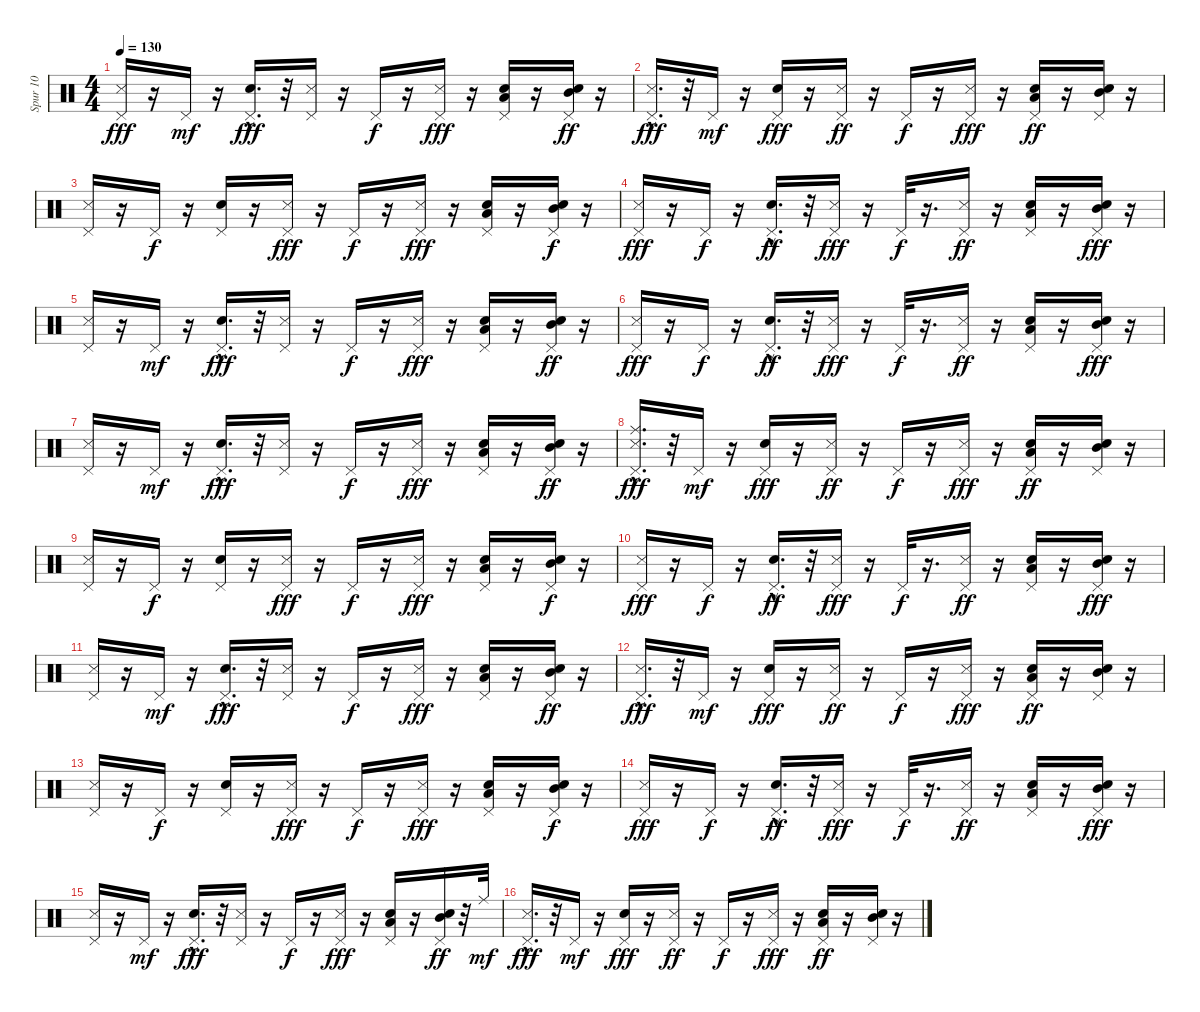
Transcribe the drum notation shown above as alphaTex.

\track ("Spur 10" "Spur 10") {instrument percussion}
\staff {score}
\articulation defaults
\ts (4 4)
\tempo 130
\clef neutral
\ks c
("Pedal Hi-Hat (hit)" "Metronome (hit)").16{dy fff} r.16 "Pedal Hi-Hat (hit)".16{dy mf} r.16 ("Pedal Hi-Hat (hit)" "Snare (hit) 2"{hac}).16{d dy fff} r.32 ("Pedal Hi-Hat (hit)" "Metronome (hit)").16 r.16 "Pedal Hi-Hat (hit)".16{dy f} r.16 ("Pedal Hi-Hat (hit)" "Metronome (hit)").16{dy fff} r.16 ("Low Tom (hit)" "Pedal Hi-Hat (hit)" "Snare (hit) 2").16 r.16 ("Mid Tom (hit)" "Pedal Hi-Hat (hit)" "Snare (hit) 2").16{dy ff} r.16 |
("Pedal Hi-Hat (hit)" "Metronome (hit)"{hac}).16{d dy fff} r.32 "Pedal Hi-Hat (hit)".16{dy mf} r.16 ("Pedal Hi-Hat (hit)" "Snare (hit) 2").16{dy fff} r.16 ("Metronome (hit)" "Pedal Hi-Hat (hit)").16{dy ff} r.16 "Pedal Hi-Hat (hit)".16{dy f} r.16 ("Metronome (hit)" "Pedal Hi-Hat (hit)").16{dy fff} r.16 ("Snare (hit) 2" "Low Tom (hit)" "Pedal Hi-Hat (hit)").16{dy ff} r.16 ("Snare (hit) 2" "Mid Tom (hit)" "Pedal Hi-Hat (hit)").16 r.16 |
("Metronome (hit)" "Pedal Hi-Hat (hit)").16 r.16 "Pedal Hi-Hat (hit)".16{dy f} r.16 ("Snare (hit) 2" "Pedal Hi-Hat (hit)").16 r.16 ("Metronome (hit)" "Pedal Hi-Hat (hit)").16{dy fff} r.16 "Pedal Hi-Hat (hit)".16{dy f} r.16 ("Metronome (hit)" "Pedal Hi-Hat (hit)").16{dy fff} r.16 ("Snare (hit) 2" "Low Tom (hit)" "Pedal Hi-Hat (hit)").16 r.16 ("Snare (hit) 2" "Mid Tom (hit)" "Pedal Hi-Hat (hit)").16{dy f} r.16 |
("Pedal Hi-Hat (hit)" "Metronome (hit)").16{dy fff} r.16 "Pedal Hi-Hat (hit)".16{dy f} r.16 ("Snare (hit) 2"{hac} "Pedal Hi-Hat (hit)").16{d dy ff} r.32 ("Metronome (hit)" "Pedal Hi-Hat (hit)").16{dy fff} r.16 "Pedal Hi-Hat (hit)".32{dy f} r.16{d} ("Metronome (hit)" "Pedal Hi-Hat (hit)").16{dy ff} r.16 ("Low Tom (hit)" "Snare (hit) 2" "Pedal Hi-Hat (hit)").16 r.16 ("Mid Tom (hit)" "Snare (hit) 2" "Pedal Hi-Hat (hit)").16{dy fff} r.16 |
("Pedal Hi-Hat (hit)" "Metronome (hit)").16 r.16 "Pedal Hi-Hat (hit)".16{dy mf} r.16 ("Pedal Hi-Hat (hit)" "Snare (hit) 2"{hac}).16{d dy fff} r.32 ("Pedal Hi-Hat (hit)" "Metronome (hit)").16 r.16 "Pedal Hi-Hat (hit)".16{dy f} r.16 ("Pedal Hi-Hat (hit)" "Metronome (hit)").16{dy fff} r.16 ("Low Tom (hit)" "Pedal Hi-Hat (hit)" "Snare (hit) 2").16 r.16 ("Mid Tom (hit)" "Pedal Hi-Hat (hit)" "Snare (hit) 2").16{dy ff} r.16 |
("Pedal Hi-Hat (hit)" "Metronome (hit)").16{dy fff} r.16 "Pedal Hi-Hat (hit)".16{dy f} r.16 ("Snare (hit) 2"{hac} "Pedal Hi-Hat (hit)").16{d dy ff} r.32 ("Metronome (hit)" "Pedal Hi-Hat (hit)").16{dy fff} r.16 "Pedal Hi-Hat (hit)".32{dy f} r.16{d} ("Metronome (hit)" "Pedal Hi-Hat (hit)").16{dy ff} r.16 ("Low Tom (hit)" "Snare (hit) 2" "Pedal Hi-Hat (hit)").16 r.16 ("Mid Tom (hit)" "Snare (hit) 2" "Pedal Hi-Hat (hit)").16{dy fff} r.16 |
("Pedal Hi-Hat (hit)" "Metronome (hit)").16 r.16 "Pedal Hi-Hat (hit)".16{dy mf} r.16 ("Pedal Hi-Hat (hit)" "Snare (hit) 2"{hac}).16{d dy fff} r.32 ("Pedal Hi-Hat (hit)" "Metronome (hit)").16 r.16 "Pedal Hi-Hat (hit)".16{dy f} r.16 ("Pedal Hi-Hat (hit)" "Metronome (hit)").16{dy fff} r.16 ("Low Tom (hit)" "Pedal Hi-Hat (hit)" "Snare (hit) 2").16 r.16 ("Mid Tom (hit)" "Pedal Hi-Hat (hit)" "Snare (hit) 2").16{dy ff} r.16 |
("Ride (middle)" "Pedal Hi-Hat (hit)" "Metronome (hit)"{hac}).16{d dy fff} r.32 "Pedal Hi-Hat (hit)".16{dy mf} r.16 ("Pedal Hi-Hat (hit)" "Snare (hit) 2").16{dy fff} r.16 ("Metronome (hit)" "Pedal Hi-Hat (hit)").16{dy ff} r.16 "Pedal Hi-Hat (hit)".16{dy f} r.16 ("Metronome (hit)" "Pedal Hi-Hat (hit)").16{dy fff} r.16 ("Snare (hit) 2" "Low Tom (hit)" "Pedal Hi-Hat (hit)").16{dy ff} r.16 ("Snare (hit) 2" "Mid Tom (hit)" "Pedal Hi-Hat (hit)").16 r.16 |
("Metronome (hit)" "Pedal Hi-Hat (hit)").16 r.16 "Pedal Hi-Hat (hit)".16{dy f} r.16 ("Snare (hit) 2" "Pedal Hi-Hat (hit)").16 r.16 ("Metronome (hit)" "Pedal Hi-Hat (hit)").16{dy fff} r.16 "Pedal Hi-Hat (hit)".16{dy f} r.16 ("Metronome (hit)" "Pedal Hi-Hat (hit)").16{dy fff} r.16 ("Snare (hit) 2" "Low Tom (hit)" "Pedal Hi-Hat (hit)").16 r.16 ("Snare (hit) 2" "Mid Tom (hit)" "Pedal Hi-Hat (hit)").16{dy f} r.16 |
("Pedal Hi-Hat (hit)" "Metronome (hit)").16{dy fff} r.16 "Pedal Hi-Hat (hit)".16{dy f} r.16 ("Snare (hit) 2"{hac} "Pedal Hi-Hat (hit)").16{d dy ff} r.32 ("Metronome (hit)" "Pedal Hi-Hat (hit)").16{dy fff} r.16 "Pedal Hi-Hat (hit)".32{dy f} r.16{d} ("Metronome (hit)" "Pedal Hi-Hat (hit)").16{dy ff} r.16 ("Low Tom (hit)" "Snare (hit) 2" "Pedal Hi-Hat (hit)").16 r.16 ("Mid Tom (hit)" "Snare (hit) 2" "Pedal Hi-Hat (hit)").16{dy fff} r.16 |
("Pedal Hi-Hat (hit)" "Metronome (hit)").16 r.16 "Pedal Hi-Hat (hit)".16{dy mf} r.16 ("Pedal Hi-Hat (hit)" "Snare (hit) 2"{hac}).16{d dy fff} r.32 ("Pedal Hi-Hat (hit)" "Metronome (hit)").16 r.16 "Pedal Hi-Hat (hit)".16{dy f} r.16 ("Pedal Hi-Hat (hit)" "Metronome (hit)").16{dy fff} r.16 ("Low Tom (hit)" "Pedal Hi-Hat (hit)" "Snare (hit) 2").16 r.16 ("Mid Tom (hit)" "Pedal Hi-Hat (hit)" "Snare (hit) 2").16{dy ff} r.16 |
("Pedal Hi-Hat (hit)" "Metronome (hit)"{hac}).16{d dy fff} r.32 "Pedal Hi-Hat (hit)".16{dy mf} r.16 ("Pedal Hi-Hat (hit)" "Snare (hit) 2").16{dy fff} r.16 ("Metronome (hit)" "Pedal Hi-Hat (hit)").16{dy ff} r.16 "Pedal Hi-Hat (hit)".16{dy f} r.16 ("Metronome (hit)" "Pedal Hi-Hat (hit)").16{dy fff} r.16 ("Snare (hit) 2" "Low Tom (hit)" "Pedal Hi-Hat (hit)").16{dy ff} r.16 ("Snare (hit) 2" "Mid Tom (hit)" "Pedal Hi-Hat (hit)").16 r.16 |
("Metronome (hit)" "Pedal Hi-Hat (hit)").16 r.16 "Pedal Hi-Hat (hit)".16{dy f} r.16 ("Snare (hit) 2" "Pedal Hi-Hat (hit)").16 r.16 ("Metronome (hit)" "Pedal Hi-Hat (hit)").16{dy fff} r.16 "Pedal Hi-Hat (hit)".16{dy f} r.16 ("Metronome (hit)" "Pedal Hi-Hat (hit)").16{dy fff} r.16 ("Snare (hit) 2" "Low Tom (hit)" "Pedal Hi-Hat (hit)").16 r.16 ("Snare (hit) 2" "Mid Tom (hit)" "Pedal Hi-Hat (hit)").16{dy f} r.16 |
("Pedal Hi-Hat (hit)" "Metronome (hit)").16{dy fff} r.16 "Pedal Hi-Hat (hit)".16{dy f} r.16 ("Snare (hit) 2"{hac} "Pedal Hi-Hat (hit)").16{d dy ff} r.32 ("Metronome (hit)" "Pedal Hi-Hat (hit)").16{dy fff} r.16 "Pedal Hi-Hat (hit)".32{dy f} r.16{d} ("Metronome (hit)" "Pedal Hi-Hat (hit)").16{dy ff} r.16 ("Low Tom (hit)" "Snare (hit) 2" "Pedal Hi-Hat (hit)").16 r.16 ("Mid Tom (hit)" "Snare (hit) 2" "Pedal Hi-Hat (hit)").16{dy fff} r.16 |
("Pedal Hi-Hat (hit)" "Metronome (hit)").16 r.16 "Pedal Hi-Hat (hit)".16{dy mf} r.16 ("Pedal Hi-Hat (hit)" "Snare (hit) 2"{hac}).16{d dy fff} r.32 ("Pedal Hi-Hat (hit)" "Metronome (hit)").16 r.16 "Pedal Hi-Hat (hit)".16{dy f} r.16 ("Pedal Hi-Hat (hit)" "Metronome (hit)").16{dy fff} r.16 ("Low Tom (hit)" "Pedal Hi-Hat (hit)" "Snare (hit) 2").16 r.16 ("Mid Tom (hit)" "Pedal Hi-Hat (hit)" "Snare (hit) 2").16{dy ff} r.32 "Ride (middle)".32{dy mf} |
("Pedal Hi-Hat (hit)" "Metronome (hit)"{hac}).16{d dy fff} r.32 "Pedal Hi-Hat (hit)".16{dy mf} r.16 ("Pedal Hi-Hat (hit)" "Snare (hit) 2").16{dy fff} r.16 ("Metronome (hit)" "Pedal Hi-Hat (hit)").16{dy ff} r.16 "Pedal Hi-Hat (hit)".16{dy f} r.16 ("Metronome (hit)" "Pedal Hi-Hat (hit)").16{dy fff} r.16 ("Snare (hit) 2" "Low Tom (hit)" "Pedal Hi-Hat (hit)").16{dy ff} r.16 ("Snare (hit) 2" "Mid Tom (hit)" "Pedal Hi-Hat (hit)").16 r.16
